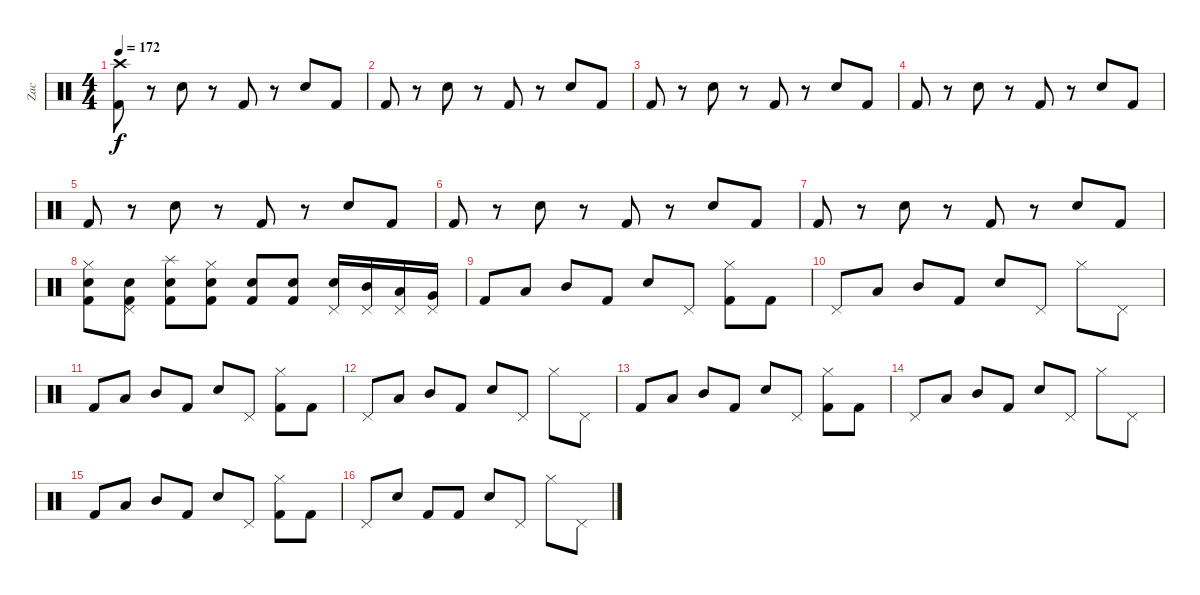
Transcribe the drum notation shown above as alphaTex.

\track ("Zac" "Zac") {instrument percussion}
\staff {score}
\articulation defaults
\ts (4 4)
\tempo 172
\clef neutral
\ks c
("Crash high (hit)" "Kick (hit) 2").8{dy f} r.8 "Electric Snare (hit)".8 r.8 "Kick (hit) 2".8 r.8 "Electric Snare (hit)".8 "Kick (hit) 2".8 |
"Kick (hit) 2".8 r.8 "Electric Snare (hit)".8 r.8 "Kick (hit) 2".8 r.8 "Electric Snare (hit)".8 "Kick (hit) 2".8 |
"Kick (hit) 2".8 r.8 "Electric Snare (hit)".8 r.8 "Kick (hit) 2".8 r.8 "Electric Snare (hit)".8 "Kick (hit) 2".8 |
"Kick (hit) 2".8 r.8 "Electric Snare (hit)".8 r.8 "Kick (hit) 2".8 r.8 "Electric Snare (hit)".8 "Kick (hit) 2".8 |
"Kick (hit) 2".8 r.8 "Electric Snare (hit)".8 r.8 "Kick (hit) 2".8 r.8 "Electric Snare (hit)".8 "Kick (hit) 2".8 |
"Kick (hit) 2".8 r.8 "Electric Snare (hit)".8 r.8 "Kick (hit) 2".8 r.8 "Electric Snare (hit)".8 "Kick (hit) 2".8 |
"Kick (hit) 2".8 r.8 "Electric Snare (hit)".8 r.8 "Kick (hit) 2".8 r.8 "Electric Snare (hit)".8 "Kick (hit) 2".8 |
("Hi-Hat (closed)" "Electric Snare (hit)" "Kick (hit) 2").8 ("Pedal Hi-Hat (hit)" "Electric Snare (hit)" "Kick (hit) 2").8 ("Splash (hit)" "Electric Snare (hit)" "Kick (hit) 2").8 ("Hi-Hat (closed)" "Electric Snare (hit)" "Kick (hit) 2").8 ("Electric Snare (hit)" "Kick (hit) 2").8 ("Electric Snare (hit)" "Kick (hit) 2").8 ("Pedal Hi-Hat (hit)" "Electric Snare (hit)").16 ("Pedal Hi-Hat (hit)" "Mid Tom (hit)").16 ("Pedal Hi-Hat (hit)" "Low Tom (hit)").16 ("Pedal Hi-Hat (hit)" "Very Low Tom (hit)").16 |
"Kick (hit) 2".8 "Low Tom (hit)".8 "Mid Tom (hit)".8 "Kick (hit) 2".8 "Electric Snare (hit)".8 "Pedal Hi-Hat (hit)".8 ("Hi-Hat (closed)" "Kick (hit) 2").8 "Kick (hit) 2".8 |
"Pedal Hi-Hat (hit)".8 "Low Tom (hit)".8 "Mid Tom (hit)".8 "Kick (hit) 2".8 "Electric Snare (hit)".8 "Pedal Hi-Hat (hit)".8 "Hi-Hat (closed)".8 "Pedal Hi-Hat (hit)".8 |
"Kick (hit) 2".8 "Low Tom (hit)".8 "Mid Tom (hit)".8 "Kick (hit) 2".8 "Electric Snare (hit)".8 "Pedal Hi-Hat (hit)".8 ("Hi-Hat (closed)" "Kick (hit) 2").8 "Kick (hit) 2".8 |
"Pedal Hi-Hat (hit)".8 "Low Tom (hit)".8 "Mid Tom (hit)".8 "Kick (hit) 2".8 "Electric Snare (hit)".8 "Pedal Hi-Hat (hit)".8 "Hi-Hat (closed)".8 "Pedal Hi-Hat (hit)".8 |
"Kick (hit) 2".8 "Low Tom (hit)".8 "Mid Tom (hit)".8 "Kick (hit) 2".8 "Electric Snare (hit)".8 "Pedal Hi-Hat (hit)".8 ("Hi-Hat (closed)" "Kick (hit) 2").8 "Kick (hit) 2".8 |
"Pedal Hi-Hat (hit)".8 "Low Tom (hit)".8 "Mid Tom (hit)".8 "Kick (hit) 2".8 "Electric Snare (hit)".8 "Pedal Hi-Hat (hit)".8 "Hi-Hat (closed)".8 "Pedal Hi-Hat (hit)".8 |
"Kick (hit) 2".8 "Low Tom (hit)".8 "Mid Tom (hit)".8 "Kick (hit) 2".8 "Electric Snare (hit)".8 "Pedal Hi-Hat (hit)".8 ("Hi-Hat (closed)" "Kick (hit) 2").8 "Kick (hit) 2".8 |
"Pedal Hi-Hat (hit)".8 "Electric Snare (hit)".8 "Kick (hit) 2".8 "Kick (hit) 2".8 "Electric Snare (hit)".8 "Pedal Hi-Hat (hit)".8 "Hi-Hat (closed)".8 "Pedal Hi-Hat (hit)".8
